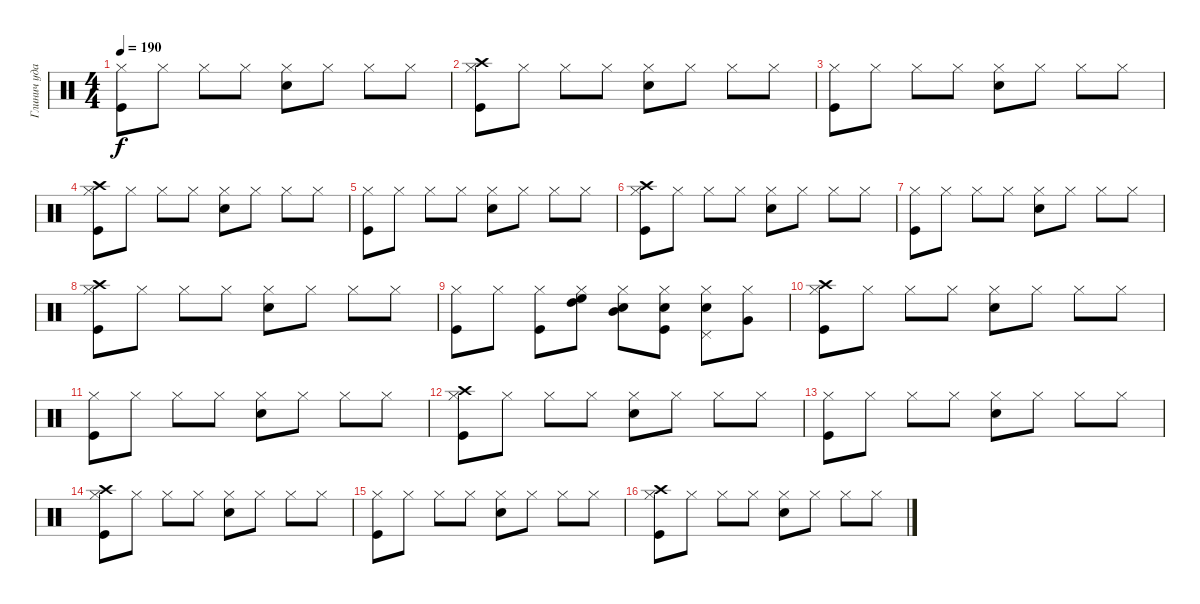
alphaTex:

\track ("Глинич ударные" "Глинич уда") {instrument percussion}
\staff {score}
\articulation defaults
\ts (4 4)
\tempo 190
\clef neutral
\ks c
("Hi-Hat (closed)" "Kick (hit)").8{dy f} "Hi-Hat (closed)".8 "Hi-Hat (closed)".8 "Hi-Hat (closed)".8 ("Hi-Hat (closed)" "Snare (hit) 2").8 "Hi-Hat (closed)".8 "Hi-Hat (closed)".8 "Hi-Hat (closed)".8 |
("Hi-Hat (closed)" "Kick (hit)" "Crash high (hit)").8 "Hi-Hat (closed)".8 "Hi-Hat (closed)".8 "Hi-Hat (closed)".8 ("Hi-Hat (closed)" "Snare (hit) 2").8 "Hi-Hat (closed)".8 "Hi-Hat (closed)".8 "Hi-Hat (closed)".8 |
("Hi-Hat (closed)" "Kick (hit)").8 "Hi-Hat (closed)".8 "Hi-Hat (closed)".8 "Hi-Hat (closed)".8 ("Hi-Hat (closed)" "Snare (hit) 2").8 "Hi-Hat (closed)".8 "Hi-Hat (closed)".8 "Hi-Hat (closed)".8 |
("Hi-Hat (closed)" "Kick (hit)" "Crash high (hit)").8 "Hi-Hat (closed)".8 "Hi-Hat (closed)".8 "Hi-Hat (closed)".8 ("Hi-Hat (closed)" "Snare (hit) 2").8 "Hi-Hat (closed)".8 "Hi-Hat (closed)".8 "Hi-Hat (closed)".8 |
("Hi-Hat (closed)" "Kick (hit)").8 "Hi-Hat (closed)".8 "Hi-Hat (closed)".8 "Hi-Hat (closed)".8 ("Hi-Hat (closed)" "Snare (hit) 2").8 "Hi-Hat (closed)".8 "Hi-Hat (closed)".8 "Hi-Hat (closed)".8 |
("Hi-Hat (closed)" "Kick (hit)" "Crash high (hit)").8 "Hi-Hat (closed)".8 "Hi-Hat (closed)".8 "Hi-Hat (closed)".8 ("Hi-Hat (closed)" "Snare (hit) 2").8 "Hi-Hat (closed)".8 "Hi-Hat (closed)".8 "Hi-Hat (closed)".8 |
("Hi-Hat (closed)" "Kick (hit)").8 "Hi-Hat (closed)".8 "Hi-Hat (closed)".8 "Hi-Hat (closed)".8 ("Hi-Hat (closed)" "Snare (hit) 2").8 "Hi-Hat (closed)".8 "Hi-Hat (closed)".8 "Hi-Hat (closed)".8 |
("Hi-Hat (closed)" "Kick (hit)" "Crash high (hit)").8 "Hi-Hat (closed)".8 "Hi-Hat (closed)".8 "Hi-Hat (closed)".8 ("Hi-Hat (closed)" "Snare (hit) 2").8 "Hi-Hat (closed)".8 "Hi-Hat (closed)".8 "Hi-Hat (closed)".8 |
("Hi-Hat (closed)" "Kick (hit)").8 "Hi-Hat (closed)".8 ("Hi-Hat (closed)" "Kick (hit)").8 ("Hi-Hat (closed)" "High Tom (hit)" "High Floor Tom (hit)").8 ("Hi-Hat (closed)" "Mid Tom (hit)" "Snare (hit) 2").8 ("Hi-Hat (closed)" "Kick (hit)" "Snare (hit) 2").8 ("Hi-Hat (closed)" "Pedal Hi-Hat (hit)" "Snare (hit) 2").8 ("Hi-Hat (closed)" "Very Low Tom (hit)").8 |
("Hi-Hat (closed)" "Kick (hit)" "Crash high (hit)").8 "Hi-Hat (closed)".8 "Hi-Hat (closed)".8 "Hi-Hat (closed)".8 ("Hi-Hat (closed)" "Snare (hit) 2").8 "Hi-Hat (closed)".8 "Hi-Hat (closed)".8 "Hi-Hat (closed)".8 |
("Hi-Hat (closed)" "Kick (hit)").8 "Hi-Hat (closed)".8 "Hi-Hat (closed)".8 "Hi-Hat (closed)".8 ("Hi-Hat (closed)" "Snare (hit) 2").8 "Hi-Hat (closed)".8 "Hi-Hat (closed)".8 "Hi-Hat (closed)".8 |
("Hi-Hat (closed)" "Kick (hit)" "Crash high (hit)").8 "Hi-Hat (closed)".8 "Hi-Hat (closed)".8 "Hi-Hat (closed)".8 ("Hi-Hat (closed)" "Snare (hit) 2").8 "Hi-Hat (closed)".8 "Hi-Hat (closed)".8 "Hi-Hat (closed)".8 |
("Hi-Hat (closed)" "Kick (hit)").8 "Hi-Hat (closed)".8 "Hi-Hat (closed)".8 "Hi-Hat (closed)".8 ("Hi-Hat (closed)" "Snare (hit) 2").8 "Hi-Hat (closed)".8 "Hi-Hat (closed)".8 "Hi-Hat (closed)".8 |
("Hi-Hat (closed)" "Kick (hit)" "Crash high (hit)").8 "Hi-Hat (closed)".8 "Hi-Hat (closed)".8 "Hi-Hat (closed)".8 ("Hi-Hat (closed)" "Snare (hit) 2").8 "Hi-Hat (closed)".8 "Hi-Hat (closed)".8 "Hi-Hat (closed)".8 |
("Hi-Hat (closed)" "Kick (hit)").8 "Hi-Hat (closed)".8 "Hi-Hat (closed)".8 "Hi-Hat (closed)".8 ("Hi-Hat (closed)" "Snare (hit) 2").8 "Hi-Hat (closed)".8 "Hi-Hat (closed)".8 "Hi-Hat (closed)".8 |
("Hi-Hat (closed)" "Kick (hit)" "Crash high (hit)").8 "Hi-Hat (closed)".8 "Hi-Hat (closed)".8 "Hi-Hat (closed)".8 ("Hi-Hat (closed)" "Snare (hit) 2").8 "Hi-Hat (closed)".8 "Hi-Hat (closed)".8 "Hi-Hat (closed)".8
